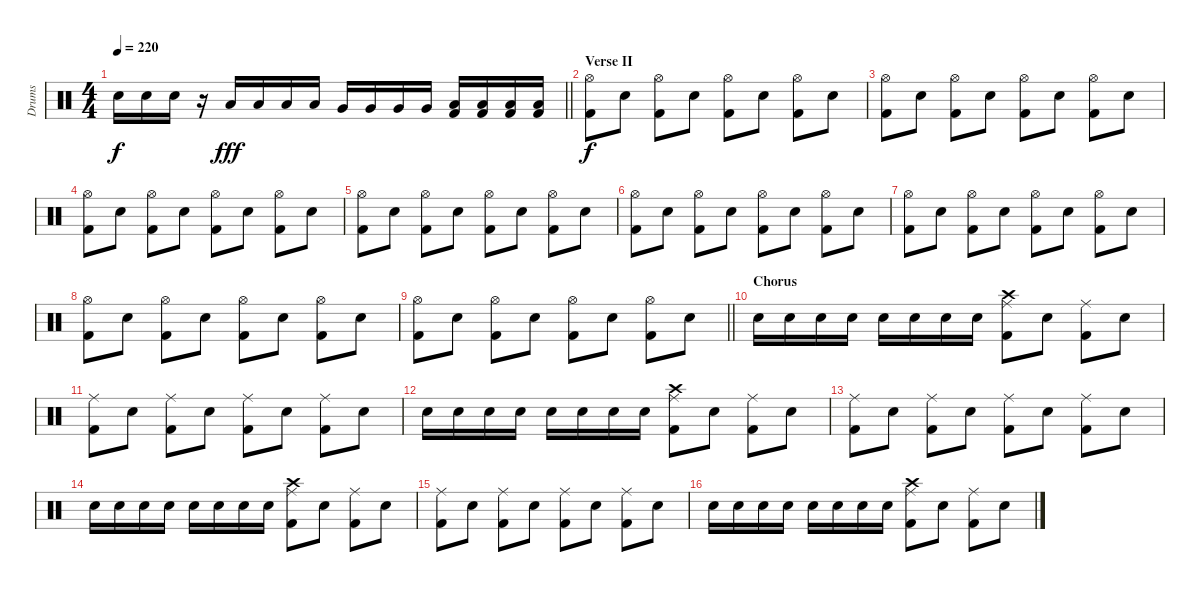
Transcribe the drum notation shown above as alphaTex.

\track ("Drums" "Drums") {instrument percussion}
\staff {score}
\articulation defaults
\ts (4 4)
\tempo 220
\clef neutral
\barLineRight lightlight
\ks c "Snare (hit) 2".16{dy f} "Snare (hit) 2".16 "Snare (hit) 2".16
r.16 "Low Tom (hit)".16{dy fff} "Low Tom (hit)".16 "Low Tom (hit)".16 "Low Tom (hit)".16 "Very Low Tom (hit)".16 "Very Low Tom (hit)".16 "Very Low Tom (hit)".16 "Very Low Tom (hit)".16 ("Kick (hit) 2" "Low Floor Tom (hit)").16 ("Kick (hit) 2" "Low Floor Tom (hit)").16 ("Kick (hit) 2" "Low Floor Tom (hit)").16 ("Kick (hit) 2" "Low Floor Tom (hit)").16 |
\section ("" "Verse II")
("Kick (hit) 2" "Hi-Hat (open)").8{dy f} "Snare (hit) 2".8 ("Kick (hit) 2" "Hi-Hat (open)").8 "Snare (hit) 2".8 ("Kick (hit) 2" "Hi-Hat (open)").8 "Snare (hit) 2".8 ("Kick (hit) 2" "Hi-Hat (open)").8 "Snare (hit) 2".8 |
("Kick (hit) 2" "Hi-Hat (open)").8 "Snare (hit) 2".8 ("Kick (hit) 2" "Hi-Hat (open)").8 "Snare (hit) 2".8 ("Kick (hit) 2" "Hi-Hat (open)").8 "Snare (hit) 2".8 ("Kick (hit) 2" "Hi-Hat (open)").8 "Snare (hit) 2".8 |
("Kick (hit) 2" "Hi-Hat (open)").8 "Snare (hit) 2".8 ("Kick (hit) 2" "Hi-Hat (open)").8 "Snare (hit) 2".8 ("Kick (hit) 2" "Hi-Hat (open)").8 "Snare (hit) 2".8 ("Kick (hit) 2" "Hi-Hat (open)").8 "Snare (hit) 2".8 |
("Kick (hit) 2" "Hi-Hat (open)").8 "Snare (hit) 2".8 ("Kick (hit) 2" "Hi-Hat (open)").8 "Snare (hit) 2".8 ("Kick (hit) 2" "Hi-Hat (open)").8 "Snare (hit) 2".8 ("Kick (hit) 2" "Hi-Hat (open)").8 "Snare (hit) 2".8 |
("Kick (hit) 2" "Hi-Hat (open)").8 "Snare (hit) 2".8 ("Kick (hit) 2" "Hi-Hat (open)").8 "Snare (hit) 2".8 ("Kick (hit) 2" "Hi-Hat (open)").8 "Snare (hit) 2".8 ("Kick (hit) 2" "Hi-Hat (open)").8 "Snare (hit) 2".8 |
("Kick (hit) 2" "Hi-Hat (open)").8 "Snare (hit) 2".8 ("Kick (hit) 2" "Hi-Hat (open)").8 "Snare (hit) 2".8 ("Kick (hit) 2" "Hi-Hat (open)").8 "Snare (hit) 2".8 ("Kick (hit) 2" "Hi-Hat (open)").8 "Snare (hit) 2".8 |
("Kick (hit) 2" "Hi-Hat (open)").8 "Snare (hit) 2".8 ("Kick (hit) 2" "Hi-Hat (open)").8 "Snare (hit) 2".8 ("Kick (hit) 2" "Hi-Hat (open)").8 "Snare (hit) 2".8 ("Kick (hit) 2" "Hi-Hat (open)").8 "Snare (hit) 2".8 |
\barLineRight lightlight
("Kick (hit) 2" "Hi-Hat (open)").8 "Snare (hit) 2".8 ("Kick (hit) 2" "Hi-Hat (open)").8 "Snare (hit) 2".8 ("Kick (hit) 2" "Hi-Hat (open)").8 "Snare (hit) 2".8 ("Kick (hit) 2" "Hi-Hat (open)").8 "Snare (hit) 2".8 |
\section ("" "Chorus")
"Snare (hit) 2".16 "Snare (hit) 2".16 "Snare (hit) 2".16 "Snare (hit) 2".16 "Snare (hit) 2".16 "Snare (hit) 2".16 "Snare (hit) 2".16 "Snare (hit) 2".16 ("Kick (hit) 2" "Ride (middle)" "Crash high (hit)").8 "Snare (hit) 2".8 ("Kick (hit) 2" "Ride (middle)").8 "Snare (hit) 2".8 |
("Kick (hit) 2" "Ride (middle)").8 "Snare (hit) 2".8 ("Kick (hit) 2" "Ride (middle)").8 "Snare (hit) 2".8 ("Kick (hit) 2" "Ride (middle)").8 "Snare (hit) 2".8 ("Kick (hit) 2" "Ride (middle)").8 "Snare (hit) 2".8 |
"Snare (hit) 2".16 "Snare (hit) 2".16 "Snare (hit) 2".16 "Snare (hit) 2".16 "Snare (hit) 2".16 "Snare (hit) 2".16 "Snare (hit) 2".16 "Snare (hit) 2".16 ("Kick (hit) 2" "Ride (middle)" "Crash high (hit)").8 "Snare (hit) 2".8 ("Kick (hit) 2" "Ride (middle)").8 "Snare (hit) 2".8 |
("Kick (hit) 2" "Ride (middle)").8 "Snare (hit) 2".8 ("Kick (hit) 2" "Ride (middle)").8 "Snare (hit) 2".8 ("Kick (hit) 2" "Ride (middle)").8 "Snare (hit) 2".8 ("Kick (hit) 2" "Ride (middle)").8 "Snare (hit) 2".8 |
"Snare (hit) 2".16 "Snare (hit) 2".16 "Snare (hit) 2".16 "Snare (hit) 2".16 "Snare (hit) 2".16 "Snare (hit) 2".16 "Snare (hit) 2".16 "Snare (hit) 2".16 ("Kick (hit) 2" "Ride (middle)" "Crash high (hit)").8 "Snare (hit) 2".8 ("Kick (hit) 2" "Ride (middle)").8 "Snare (hit) 2".8 |
("Kick (hit) 2" "Ride (middle)").8 "Snare (hit) 2".8 ("Kick (hit) 2" "Ride (middle)").8 "Snare (hit) 2".8 ("Kick (hit) 2" "Ride (middle)").8 "Snare (hit) 2".8 ("Kick (hit) 2" "Ride (middle)").8 "Snare (hit) 2".8 |
"Snare (hit) 2".16 "Snare (hit) 2".16 "Snare (hit) 2".16 "Snare (hit) 2".16 "Snare (hit) 2".16 "Snare (hit) 2".16 "Snare (hit) 2".16 "Snare (hit) 2".16 ("Kick (hit) 2" "Ride (middle)" "Crash high (hit)").8 "Snare (hit) 2".8 ("Kick (hit) 2" "Ride (middle)").8 "Snare (hit) 2".8
